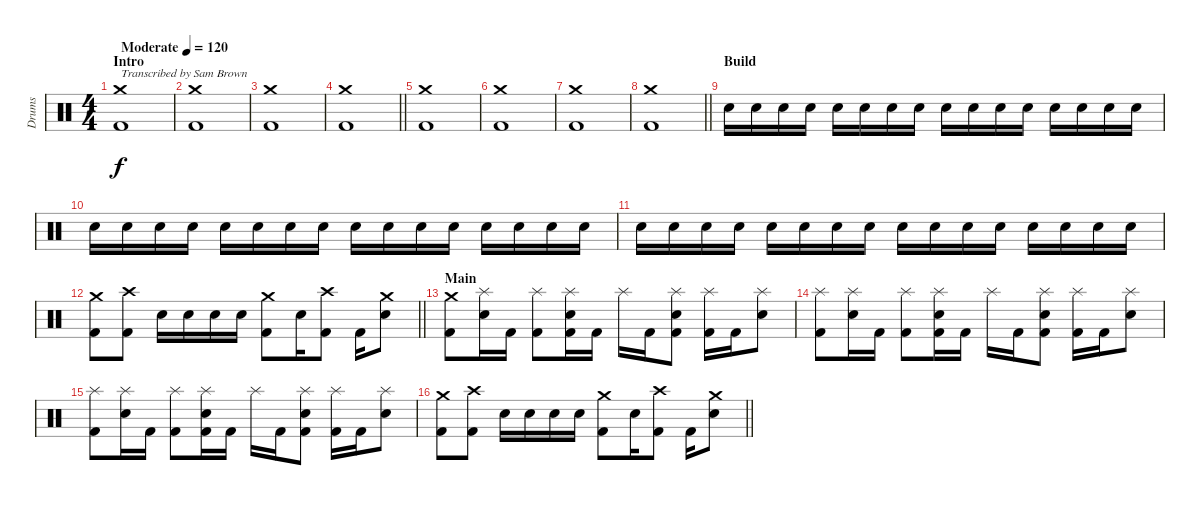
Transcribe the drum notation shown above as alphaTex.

\track ("Drums" "Drums") {instrument percussion}
\staff {score}
\articulation defaults
\ts (4 4)
\section ("" "Intro")
\tempo (120 "Moderate")
\clef neutral
\ks c
("Kick (hit) 2" "Crash medium (hit)").1{txt "Transcribed by Sam Brown" dy f} |
("Kick (hit) 2" "Crash medium (hit)").1 |
("Kick (hit) 2" "Crash medium (hit)").1 |
\barLineRight lightlight
("Kick (hit) 2" "Crash medium (hit)").1 |
\section ("" "")
("Kick (hit) 2" "Crash medium (hit)").1 |
("Kick (hit) 2" "Crash medium (hit)").1 |
("Kick (hit) 2" "Crash medium (hit)").1 |
\barLineRight lightlight
("Kick (hit) 2" "Crash medium (hit)").1 |
\section ("" "Build")
"Snare (hit) 2".16{volume 4} "Snare (hit) 2".16{volume 13} "Snare (hit) 2".16 "Snare (hit) 2".16 "Snare (hit) 2".16 "Snare (hit) 2".16 "Snare (hit) 2".16 "Snare (hit) 2".16 "Snare (hit) 2".16 "Snare (hit) 2".16 "Snare (hit) 2".16 "Snare (hit) 2".16 "Snare (hit) 2".16 "Snare (hit) 2".16 "Snare (hit) 2".16 "Snare (hit) 2".16 |
"Snare (hit) 2".16 "Snare (hit) 2".16 "Snare (hit) 2".16 "Snare (hit) 2".16 "Snare (hit) 2".16 "Snare (hit) 2".16 "Snare (hit) 2".16 "Snare (hit) 2".16 "Snare (hit) 2".16 "Snare (hit) 2".16 "Snare (hit) 2".16 "Snare (hit) 2".16 "Snare (hit) 2".16 "Snare (hit) 2".16 "Snare (hit) 2".16 "Snare (hit) 2".16 |
"Snare (hit) 2".16 "Snare (hit) 2".16 "Snare (hit) 2".16 "Snare (hit) 2".16 "Snare (hit) 2".16 "Snare (hit) 2".16 "Snare (hit) 2".16 "Snare (hit) 2".16 "Snare (hit) 2".16 "Snare (hit) 2".16 "Snare (hit) 2".16 "Snare (hit) 2".16 "Snare (hit) 2".16 "Snare (hit) 2".16 "Snare (hit) 2".16 "Snare (hit) 2".16 |
\barLineRight lightlight
("Kick (hit) 2" "Crash medium (hit)").8 ("Kick (hit) 2" "Crash high (hit)").8 "Snare (hit) 2".16 "Snare (hit) 2".16 "Snare (hit) 2".16 "Snare (hit) 2".16 ("Kick (hit) 2" "Crash medium (hit)").8 "Snare (hit) 2".16 ("Kick (hit) 2" "Crash high (hit)").8 "Kick (hit) 2".16 ("Snare (hit) 2" "Crash medium (hit)").8 |
\section ("" "Main")
("Kick (hit) 2" "Crash medium (hit)").8{volume 13} ("Snare (hit) 2" "Splash (hit)").16 "Kick (hit) 2".16 ("Kick (hit) 2" "Splash (hit)").8 ("Kick (hit) 2" "Snare (hit) 2" "Splash (hit)").16 "Kick (hit) 2".16 "Splash (hit)".16 "Kick (hit) 2".16 ("Kick (hit) 2" "Snare (hit) 2" "Splash (hit)").8 ("Kick (hit) 2" "Splash (hit)").16 "Kick (hit) 2".16 ("Snare (hit) 2" "Splash (hit)").8 |
("Kick (hit) 2" "Splash (hit)").8 ("Snare (hit) 2" "Splash (hit)").16 "Kick (hit) 2".16 ("Kick (hit) 2" "Splash (hit)").8 ("Kick (hit) 2" "Snare (hit) 2" "Splash (hit)").16 "Kick (hit) 2".16 "Splash (hit)".16 "Kick (hit) 2".16 ("Kick (hit) 2" "Snare (hit) 2" "Splash (hit)").8 ("Kick (hit) 2" "Splash (hit)").16 "Kick (hit) 2".16 ("Snare (hit) 2" "Splash (hit)").8 |
("Kick (hit) 2" "Splash (hit)").8 ("Snare (hit) 2" "Splash (hit)").16 "Kick (hit) 2".16 ("Kick (hit) 2" "Splash (hit)").8 ("Kick (hit) 2" "Snare (hit) 2" "Splash (hit)").16 "Kick (hit) 2".16 "Splash (hit)".16 "Kick (hit) 2".16 ("Kick (hit) 2" "Snare (hit) 2" "Splash (hit)").8 ("Kick (hit) 2" "Splash (hit)").16 "Kick (hit) 2".16 ("Snare (hit) 2" "Splash (hit)").8 |
\barLineRight lightlight
("Kick (hit) 2" "Crash medium (hit)").8 ("Kick (hit) 2" "Crash high (hit)").8 "Snare (hit) 2".16 "Snare (hit) 2".16 "Snare (hit) 2".16 "Snare (hit) 2".16 ("Kick (hit) 2" "Crash medium (hit)").8 "Snare (hit) 2".16 ("Kick (hit) 2" "Crash high (hit)").8 "Kick (hit) 2".16 ("Snare (hit) 2" "Crash medium (hit)").8
